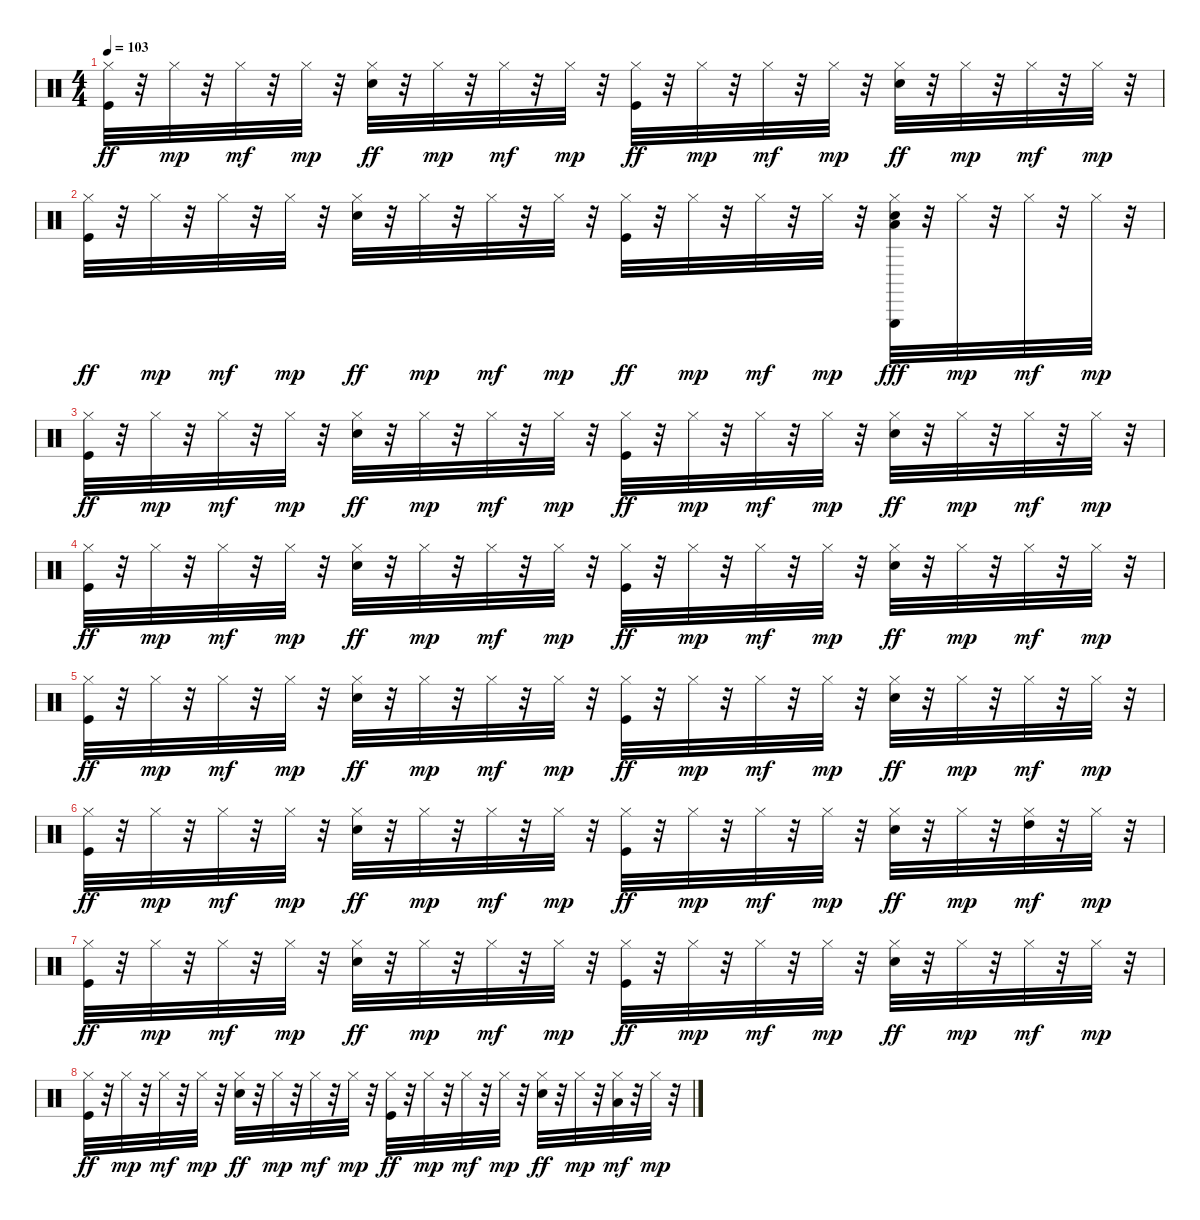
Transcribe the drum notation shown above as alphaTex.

\track "" {instrument percussion}
\staff {score}
\articulation defaults
\ts (4 4)
\tempo 103
\clef neutral
\ks c
("Kick (hit)" "Hi-Hat (closed)").32{dy ff} r.32 "Hi-Hat (closed)".32{dy mp} r.32 "Hi-Hat (closed)".32{dy mf} r.32 "Hi-Hat (closed)".32{dy mp} r.32 ("Snare (hit) 2" "Hi-Hat (closed)").32{dy ff} r.32 "Hi-Hat (closed)".32{dy mp} r.32 "Hi-Hat (closed)".32{dy mf} r.32 "Hi-Hat (closed)".32{dy mp} r.32 ("Kick (hit)" "Hi-Hat (closed)").32{dy ff} r.32 "Hi-Hat (closed)".32{dy mp} r.32 "Hi-Hat (closed)".32{dy mf} r.32 "Hi-Hat (closed)".32{dy mp} r.32 ("Snare (hit) 2" "Hi-Hat (closed)").32{dy ff} r.32 "Hi-Hat (closed)".32{dy mp} r.32 "Hi-Hat (closed)".32{dy mf} r.32 "Hi-Hat (closed)".32{dy mp} r.32 |
("Kick (hit)" "Hi-Hat (closed)").32{dy ff} r.32 "Hi-Hat (closed)".32{dy mp} r.32 "Hi-Hat (closed)".32{dy mf} r.32 "Hi-Hat (closed)".32{dy mp} r.32 ("Snare (hit) 2" "Hi-Hat (closed)").32{dy ff} r.32 "Hi-Hat (closed)".32{dy mp} r.32 "Hi-Hat (closed)".32{dy mf} r.32 "Hi-Hat (closed)".32{dy mp} r.32 ("Kick (hit)" "Hi-Hat (closed)").32{dy ff} r.32 "Hi-Hat (closed)".32{dy mp} r.32 "Hi-Hat (closed)".32{dy mf} r.32 "Hi-Hat (closed)".32{dy mp} r.32 ("Snare (hit) 2" "Hi-Hat (closed)" "Triangle (hit)" "Low Floor Tom (hit)").32{dy fff} r.32 "Hi-Hat (closed)".32{dy mp} r.32 "Hi-Hat (closed)".32{dy mf} r.32 "Hi-Hat (closed)".32{dy mp} r.32 |
("Kick (hit)" "Hi-Hat (closed)").32{dy ff} r.32 "Hi-Hat (closed)".32{dy mp} r.32 "Hi-Hat (closed)".32{dy mf} r.32 "Hi-Hat (closed)".32{dy mp} r.32 ("Snare (hit) 2" "Hi-Hat (closed)").32{dy ff} r.32 "Hi-Hat (closed)".32{dy mp} r.32 "Hi-Hat (closed)".32{dy mf} r.32 "Hi-Hat (closed)".32{dy mp} r.32 ("Kick (hit)" "Hi-Hat (closed)").32{dy ff} r.32 "Hi-Hat (closed)".32{dy mp} r.32 "Hi-Hat (closed)".32{dy mf} r.32 "Hi-Hat (closed)".32{dy mp} r.32 ("Snare (hit) 2" "Hi-Hat (closed)").32{dy ff} r.32 "Hi-Hat (closed)".32{dy mp} r.32 "Hi-Hat (closed)".32{dy mf} r.32 "Hi-Hat (closed)".32{dy mp} r.32 |
("Kick (hit)" "Hi-Hat (closed)").32{dy ff} r.32 "Hi-Hat (closed)".32{dy mp} r.32 "Hi-Hat (closed)".32{dy mf} r.32 "Hi-Hat (closed)".32{dy mp} r.32 ("Snare (hit) 2" "Hi-Hat (closed)").32{dy ff} r.32 "Hi-Hat (closed)".32{dy mp} r.32 "Hi-Hat (closed)".32{dy mf} r.32 "Hi-Hat (closed)".32{dy mp} r.32 ("Kick (hit)" "Hi-Hat (closed)").32{dy ff} r.32 "Hi-Hat (closed)".32{dy mp} r.32 "Hi-Hat (closed)".32{dy mf} r.32 "Hi-Hat (closed)".32{dy mp} r.32 ("Snare (hit) 2" "Hi-Hat (closed)").32{dy ff} r.32 "Hi-Hat (closed)".32{dy mp} r.32 "Hi-Hat (closed)".32{dy mf} r.32 "Hi-Hat (closed)".32{dy mp} r.32 |
("Kick (hit)" "Hi-Hat (closed)").32{dy ff} r.32 "Hi-Hat (closed)".32{dy mp} r.32 "Hi-Hat (closed)".32{dy mf} r.32 "Hi-Hat (closed)".32{dy mp} r.32 ("Snare (hit) 2" "Hi-Hat (closed)").32{dy ff} r.32 "Hi-Hat (closed)".32{dy mp} r.32 "Hi-Hat (closed)".32{dy mf} r.32 "Hi-Hat (closed)".32{dy mp} r.32 ("Kick (hit)" "Hi-Hat (closed)").32{dy ff} r.32 "Hi-Hat (closed)".32{dy mp} r.32 "Hi-Hat (closed)".32{dy mf} r.32 "Hi-Hat (closed)".32{dy mp} r.32 ("Snare (hit) 2" "Hi-Hat (closed)").32{dy ff} r.32 "Hi-Hat (closed)".32{dy mp} r.32 "Hi-Hat (closed)".32{dy mf} r.32 "Hi-Hat (closed)".32{dy mp} r.32 |
("Kick (hit)" "Hi-Hat (closed)").32{dy ff} r.32 "Hi-Hat (closed)".32{dy mp} r.32 "Hi-Hat (closed)".32{dy mf} r.32 "Hi-Hat (closed)".32{dy mp} r.32 ("Snare (hit) 2" "Hi-Hat (closed)").32{dy ff} r.32 "Hi-Hat (closed)".32{dy mp} r.32 "Hi-Hat (closed)".32{dy mf} r.32 "Hi-Hat (closed)".32{dy mp} r.32 ("Kick (hit)" "Hi-Hat (closed)").32{dy ff} r.32 "Hi-Hat (closed)".32{dy mp} r.32 "Hi-Hat (closed)".32{dy mf} r.32 "Hi-Hat (closed)".32{dy mp} r.32 ("Snare (hit) 2" "Hi-Hat (closed)").32{dy ff} r.32 "Hi-Hat (closed)".32{dy mp} r.32 ("Hi-Hat (closed)" "High Tom (hit)").32{dy mf} r.32 "Hi-Hat (closed)".32{dy mp} r.32 |
("Kick (hit)" "Hi-Hat (closed)").32{dy ff} r.32 "Hi-Hat (closed)".32{dy mp} r.32 "Hi-Hat (closed)".32{dy mf} r.32 "Hi-Hat (closed)".32{dy mp} r.32 ("Snare (hit) 2" "Hi-Hat (closed)").32{dy ff} r.32 "Hi-Hat (closed)".32{dy mp} r.32 "Hi-Hat (closed)".32{dy mf} r.32 "Hi-Hat (closed)".32{dy mp} r.32 ("Kick (hit)" "Hi-Hat (closed)").32{dy ff} r.32 "Hi-Hat (closed)".32{dy mp} r.32 "Hi-Hat (closed)".32{dy mf} r.32 "Hi-Hat (closed)".32{dy mp} r.32 ("Snare (hit) 2" "Hi-Hat (closed)").32{dy ff} r.32 "Hi-Hat (closed)".32{dy mp} r.32 "Hi-Hat (closed)".32{dy mf} r.32 "Hi-Hat (closed)".32{dy mp} r.32 |
("Kick (hit)" "Hi-Hat (closed)").32{dy ff} r.32 "Hi-Hat (closed)".32{dy mp} r.32 "Hi-Hat (closed)".32{dy mf} r.32 "Hi-Hat (closed)".32{dy mp} r.32 ("Snare (hit) 2" "Hi-Hat (closed)").32{dy ff} r.32 "Hi-Hat (closed)".32{dy mp} r.32 "Hi-Hat (closed)".32{dy mf} r.32 "Hi-Hat (closed)".32{dy mp} r.32 ("Kick (hit)" "Hi-Hat (closed)").32{dy ff} r.32 "Hi-Hat (closed)".32{dy mp} r.32 "Hi-Hat (closed)".32{dy mf} r.32 "Hi-Hat (closed)".32{dy mp} r.32 ("Snare (hit) 2" "Hi-Hat (closed)").32{dy ff} r.32 "Hi-Hat (closed)".32{dy mp} r.32 ("Hi-Hat (closed)" "Low Floor Tom (hit)").32{dy mf} r.32 "Hi-Hat (closed)".32{dy mp} r.32
